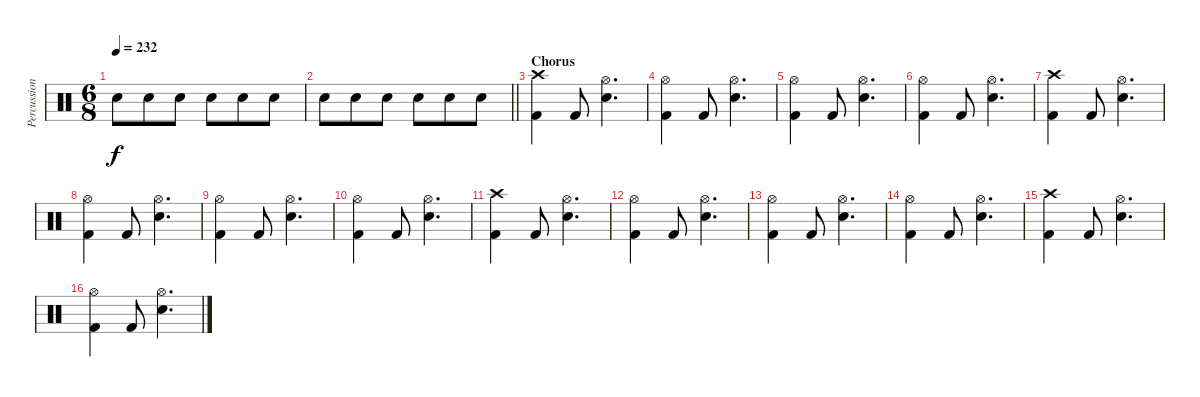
\track ("Percussion" "Percussion") {instrument percussion}
\staff {score}
\articulation defaults
\ts (6 8)
\tempo 232
\clef neutral
\ks c "Electric Snare (hit)".8{dy f} "Electric Snare (hit)".8 "Electric Snare (hit)".8 "Electric Snare (hit)".8 "Electric Snare (hit)".8 "Electric Snare (hit)".8
|
\barLineRight lightlight "Electric Snare (hit)".8 "Electric Snare (hit)".8 "Electric Snare (hit)".8 "Electric Snare (hit)".8 "Electric Snare (hit)".8 "Electric Snare (hit)".8
|
\section ("" "Chorus")
("Crash high (hit)" "Kick (hit) 2").4 "Kick (hit) 2".8 ("Hi-Hat (open)" "Electric Snare (hit)").4{d} |
("Hi-Hat (open)" "Kick (hit) 2").4 "Kick (hit) 2".8 ("Hi-Hat (open)" "Electric Snare (hit)").4{d} |
("Hi-Hat (open)" "Kick (hit) 2").4 "Kick (hit) 2".8 ("Hi-Hat (open)" "Electric Snare (hit)").4{d} |
("Hi-Hat (open)" "Kick (hit) 2").4 "Kick (hit) 2".8 ("Hi-Hat (open)" "Electric Snare (hit)").4{d} |
("Crash high (hit)" "Kick (hit) 2").4 "Kick (hit) 2".8 ("Hi-Hat (open)" "Electric Snare (hit)").4{d} |
("Hi-Hat (open)" "Kick (hit) 2").4 "Kick (hit) 2".8 ("Hi-Hat (open)" "Electric Snare (hit)").4{d} |
("Hi-Hat (open)" "Kick (hit) 2").4 "Kick (hit) 2".8 ("Hi-Hat (open)" "Electric Snare (hit)").4{d} |
("Hi-Hat (open)" "Kick (hit) 2").4 "Kick (hit) 2".8 ("Hi-Hat (open)" "Electric Snare (hit)").4{d} |
("Crash high (hit)" "Kick (hit) 2").4 "Kick (hit) 2".8 ("Hi-Hat (open)" "Electric Snare (hit)").4{d} |
("Hi-Hat (open)" "Kick (hit) 2").4 "Kick (hit) 2".8 ("Hi-Hat (open)" "Electric Snare (hit)").4{d} |
("Hi-Hat (open)" "Kick (hit) 2").4 "Kick (hit) 2".8 ("Hi-Hat (open)" "Electric Snare (hit)").4{d} |
("Hi-Hat (open)" "Kick (hit) 2").4 "Kick (hit) 2".8 ("Hi-Hat (open)" "Electric Snare (hit)").4{d} |
("Crash high (hit)" "Kick (hit) 2").4 "Kick (hit) 2".8 ("Hi-Hat (open)" "Electric Snare (hit)").4{d} |
("Hi-Hat (open)" "Kick (hit) 2").4 "Kick (hit) 2".8 ("Hi-Hat (open)" "Electric Snare (hit)").4{d}
